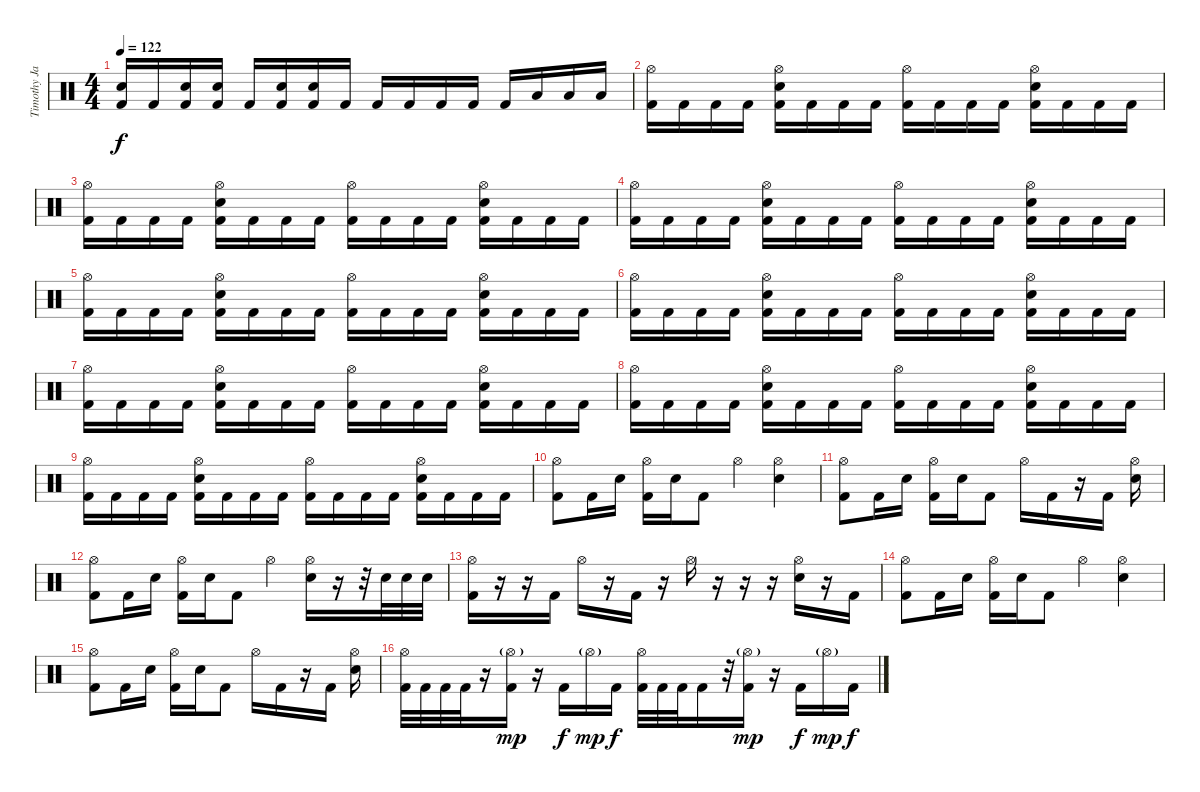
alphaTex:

\track ("Timothy Java" "Timothy Ja") {instrument percussion}
\staff {score}
\articulation defaults
\ts (4 4)
\tempo 122
\clef neutral
\ks c
("Kick (hit) 2" "Electric Snare (hit)").16{dy f} "Kick (hit) 2".16 ("Kick (hit) 2" "Snare (hit) 2").16 ("Kick (hit) 2" "Snare (hit) 2").16 "Kick (hit) 2".16 ("Kick (hit) 2" "Electric Snare (hit)").16 ("Kick (hit) 2" "Electric Snare (hit)").16 "Kick (hit) 2".16 "Kick (hit) 2".16 "Kick (hit) 2".16 "Kick (hit) 2".16 "Kick (hit) 2".16 "Kick (hit) 2".16 "Low Tom (hit)".16 "Low Tom (hit)".16 "Low Tom (hit)".16 |
("Kick (hit) 2" "Hi-Hat (open)").16 "Kick (hit) 2".16 "Kick (hit) 2".16 "Kick (hit) 2".16 ("Kick (hit) 2" "Electric Snare (hit)" "Hi-Hat (open)").16 "Kick (hit) 2".16 "Kick (hit) 2".16 "Kick (hit) 2".16 ("Kick (hit) 2" "Hi-Hat (open)").16 "Kick (hit) 2".16 "Kick (hit) 2".16 "Kick (hit) 2".16 ("Kick (hit) 2" "Electric Snare (hit)" "Hi-Hat (open)").16 "Kick (hit) 2".16 "Kick (hit) 2".16 "Kick (hit) 2".16 |
("Kick (hit) 2" "Hi-Hat (open)").16 "Kick (hit) 2".16 "Kick (hit) 2".16 "Kick (hit) 2".16 ("Kick (hit) 2" "Electric Snare (hit)" "Hi-Hat (open)").16 "Kick (hit) 2".16 "Kick (hit) 2".16 "Kick (hit) 2".16 ("Kick (hit) 2" "Hi-Hat (open)").16 "Kick (hit) 2".16 "Kick (hit) 2".16 "Kick (hit) 2".16 ("Kick (hit) 2" "Electric Snare (hit)" "Hi-Hat (open)").16 "Kick (hit) 2".16 "Kick (hit) 2".16 "Kick (hit) 2".16 |
("Kick (hit) 2" "Hi-Hat (open)").16 "Kick (hit) 2".16 "Kick (hit) 2".16 "Kick (hit) 2".16 ("Kick (hit) 2" "Electric Snare (hit)" "Hi-Hat (open)").16 "Kick (hit) 2".16 "Kick (hit) 2".16 "Kick (hit) 2".16 ("Kick (hit) 2" "Hi-Hat (open)").16 "Kick (hit) 2".16 "Kick (hit) 2".16 "Kick (hit) 2".16 ("Kick (hit) 2" "Electric Snare (hit)" "Hi-Hat (open)").16 "Kick (hit) 2".16 "Kick (hit) 2".16 "Kick (hit) 2".16 |
("Kick (hit) 2" "Hi-Hat (open)").16 "Kick (hit) 2".16 "Kick (hit) 2".16 "Kick (hit) 2".16 ("Kick (hit) 2" "Electric Snare (hit)" "Hi-Hat (open)").16 "Kick (hit) 2".16 "Kick (hit) 2".16 "Kick (hit) 2".16 ("Kick (hit) 2" "Hi-Hat (open)").16 "Kick (hit) 2".16 "Kick (hit) 2".16 "Kick (hit) 2".16 ("Kick (hit) 2" "Electric Snare (hit)" "Hi-Hat (open)").16 "Kick (hit) 2".16 "Kick (hit) 2".16 "Kick (hit) 2".16 |
("Kick (hit) 2" "Hi-Hat (open)").16 "Kick (hit) 2".16 "Kick (hit) 2".16 "Kick (hit) 2".16 ("Kick (hit) 2" "Electric Snare (hit)" "Hi-Hat (open)").16 "Kick (hit) 2".16 "Kick (hit) 2".16 "Kick (hit) 2".16 ("Kick (hit) 2" "Hi-Hat (open)").16 "Kick (hit) 2".16 "Kick (hit) 2".16 "Kick (hit) 2".16 ("Kick (hit) 2" "Electric Snare (hit)" "Hi-Hat (open)").16 "Kick (hit) 2".16 "Kick (hit) 2".16 "Kick (hit) 2".16 |
("Kick (hit) 2" "Hi-Hat (open)").16 "Kick (hit) 2".16 "Kick (hit) 2".16 "Kick (hit) 2".16 ("Kick (hit) 2" "Electric Snare (hit)" "Hi-Hat (open)").16 "Kick (hit) 2".16 "Kick (hit) 2".16 "Kick (hit) 2".16 ("Kick (hit) 2" "Hi-Hat (open)").16 "Kick (hit) 2".16 "Kick (hit) 2".16 "Kick (hit) 2".16 ("Kick (hit) 2" "Electric Snare (hit)" "Hi-Hat (open)").16 "Kick (hit) 2".16 "Kick (hit) 2".16 "Kick (hit) 2".16 |
("Kick (hit) 2" "Hi-Hat (open)").16 "Kick (hit) 2".16 "Kick (hit) 2".16 "Kick (hit) 2".16 ("Kick (hit) 2" "Electric Snare (hit)" "Hi-Hat (open)").16 "Kick (hit) 2".16 "Kick (hit) 2".16 "Kick (hit) 2".16 ("Kick (hit) 2" "Hi-Hat (open)").16 "Kick (hit) 2".16 "Kick (hit) 2".16 "Kick (hit) 2".16 ("Kick (hit) 2" "Electric Snare (hit)" "Hi-Hat (open)").16 "Kick (hit) 2".16 "Kick (hit) 2".16 "Kick (hit) 2".16 |
("Kick (hit) 2" "Hi-Hat (open)").16 "Kick (hit) 2".16 "Kick (hit) 2".16 "Kick (hit) 2".16 ("Kick (hit) 2" "Electric Snare (hit)" "Hi-Hat (open)").16 "Kick (hit) 2".16 "Kick (hit) 2".16 "Kick (hit) 2".16 ("Kick (hit) 2" "Hi-Hat (open)").16 "Kick (hit) 2".16 "Kick (hit) 2".16 "Kick (hit) 2".16 ("Kick (hit) 2" "Electric Snare (hit)" "Hi-Hat (open)").16 "Kick (hit) 2".16 "Kick (hit) 2".16 "Kick (hit) 2".16 |
("Hi-Hat (open)" "Kick (hit) 2").8 "Kick (hit) 2".16 "Electric Snare (hit)".16 ("Hi-Hat (open)" "Kick (hit) 2").16 "Electric Snare (hit)".16 "Kick (hit) 2".8 "Hi-Hat (open)".4 ("Hi-Hat (open)" "Electric Snare (hit)").4 |
("Hi-Hat (open)" "Kick (hit) 2").8 "Kick (hit) 2".16 "Electric Snare (hit)".16 ("Hi-Hat (open)" "Kick (hit) 2").16 "Electric Snare (hit)".16 "Kick (hit) 2".8 "Hi-Hat (open)".16 "Kick (hit) 2".16 r.16 "Kick (hit) 2".16 ("Hi-Hat (open)" "Electric Snare (hit)").16 |
("Hi-Hat (open)" "Kick (hit) 2").8 "Kick (hit) 2".16 "Electric Snare (hit)".16 ("Hi-Hat (open)" "Kick (hit) 2").16 "Electric Snare (hit)".16 "Kick (hit) 2".8 "Hi-Hat (open)".4 ("Hi-Hat (open)" "Electric Snare (hit)").16 r.16 r.32 "Electric Snare (hit)".32 "Electric Snare (hit)".32 "Electric Snare (hit)".32 |
("Hi-Hat (open)" "Kick (hit) 2").16 r.16 r.16 "Kick (hit) 2".16 "Hi-Hat (open)".16 r.16 "Kick (hit) 2".16 r.16 "Hi-Hat (open)".16 r.16 r.16 r.16 ("Hi-Hat (open)" "Electric Snare (hit)").16 r.16 "Kick (hit) 2".16 |
("Hi-Hat (open)" "Kick (hit) 2").8 "Kick (hit) 2".16 "Electric Snare (hit)".16 ("Hi-Hat (open)" "Kick (hit) 2").16 "Electric Snare (hit)".16 "Kick (hit) 2".8 "Hi-Hat (open)".4 ("Hi-Hat (open)" "Electric Snare (hit)").4 |
("Hi-Hat (open)" "Kick (hit) 2").8 "Kick (hit) 2".16 "Electric Snare (hit)".16 ("Hi-Hat (open)" "Kick (hit) 2").16 "Electric Snare (hit)".16 "Kick (hit) 2".8 "Hi-Hat (open)".16 "Kick (hit) 2".16 r.16 "Kick (hit) 2".16 ("Hi-Hat (open)" "Electric Snare (hit)").16 |
("Hi-Hat (open)" "Kick (hit) 2").32 "Kick (hit) 2".32 "Kick (hit) 2".32 "Kick (hit) 2".32 r.16 ("Hi-Hat (open)"{g} "Kick (hit) 2").16{dy mp} r.16 "Kick (hit) 2".16{dy f} "Hi-Hat (open)"{g}.16{dy mp} "Kick (hit) 2".16{dy f} ("Hi-Hat (open)" "Kick (hit) 2").32 "Kick (hit) 2".32 "Kick (hit) 2".32 "Kick (hit) 2".16 r.32 ("Hi-Hat (open)"{g} "Kick (hit) 2").16{dy mp} r.16 "Kick (hit) 2".16{dy f} "Hi-Hat (open)"{g}.16{dy mp} "Kick (hit) 2".16{dy f}
